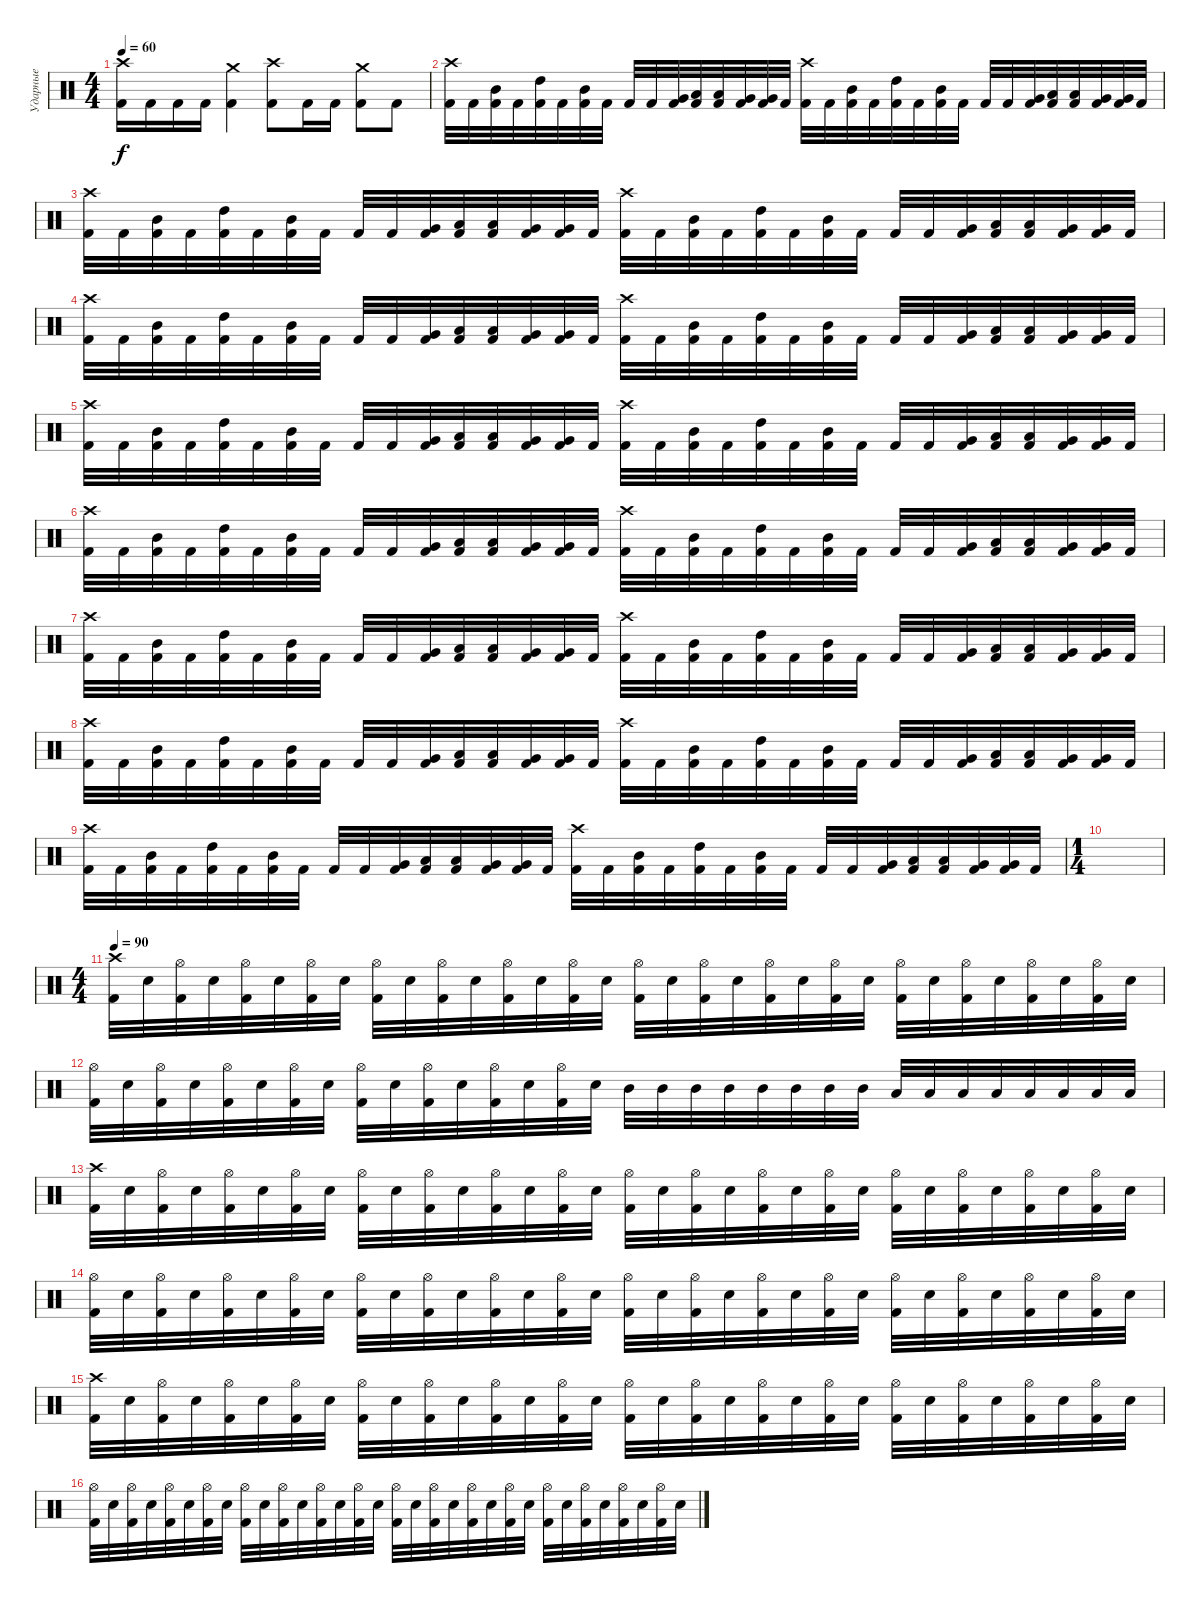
\track ("Ударные" "Ударные") {instrument percussion}
\staff {score}
\articulation defaults
\ts (4 4)
\tempo 60
\clef neutral
\ks c
("Crash high (hit)" "Kick (hit) 2").16{dy f} "Kick (hit) 2".16 "Kick (hit) 2".16 "Kick (hit) 2".16 ("Crash medium (hit)" "Kick (hit) 2").4 ("Crash high (hit)" "Kick (hit) 2").8 "Kick (hit) 2".16 "Kick (hit) 2".16 ("Crash medium (hit)" "Kick (hit) 2").8 "Kick (hit) 2".8 |
("Crash high (hit)" "Kick (hit) 2").32 "Kick (hit) 2".32 ("Mid Tom (hit)" "Kick (hit) 2").32 "Kick (hit) 2".32 ("High Tom (hit)" "Kick (hit) 2").32 "Kick (hit) 2".32 ("Mid Tom (hit)" "Kick (hit) 2").32 "Kick (hit) 2".32 "Kick (hit) 2".32 "Kick (hit) 2".32 ("Very Low Tom (hit)" "Kick (hit) 2").32 ("Low Tom (hit)" "Kick (hit) 2").32 ("Low Tom (hit)" "Kick (hit) 2").32 ("Very Low Tom (hit)" "Kick (hit) 2").32 ("Very Low Tom (hit)" "Kick (hit) 2").32 "Kick (hit) 2".32 ("Crash high (hit)" "Kick (hit) 2").32 "Kick (hit) 2".32 ("Mid Tom (hit)" "Kick (hit) 2").32 "Kick (hit) 2".32 ("High Tom (hit)" "Kick (hit) 2").32 "Kick (hit) 2".32 ("Mid Tom (hit)" "Kick (hit) 2").32 "Kick (hit) 2".32 "Kick (hit) 2".32 "Kick (hit) 2".32 ("Very Low Tom (hit)" "Kick (hit) 2").32 ("Low Tom (hit)" "Kick (hit) 2").32 ("Low Tom (hit)" "Kick (hit) 2").32 ("Very Low Tom (hit)" "Kick (hit) 2").32 ("Very Low Tom (hit)" "Kick (hit) 2").32 "Kick (hit) 2".32 |
("Crash high (hit)" "Kick (hit) 2").32 "Kick (hit) 2".32 ("Mid Tom (hit)" "Kick (hit) 2").32 "Kick (hit) 2".32 ("High Tom (hit)" "Kick (hit) 2").32 "Kick (hit) 2".32 ("Mid Tom (hit)" "Kick (hit) 2").32 "Kick (hit) 2".32 "Kick (hit) 2".32 "Kick (hit) 2".32 ("Very Low Tom (hit)" "Kick (hit) 2").32 ("Low Tom (hit)" "Kick (hit) 2").32 ("Low Tom (hit)" "Kick (hit) 2").32 ("Very Low Tom (hit)" "Kick (hit) 2").32 ("Very Low Tom (hit)" "Kick (hit) 2").32 "Kick (hit) 2".32 ("Crash high (hit)" "Kick (hit) 2").32 "Kick (hit) 2".32 ("Mid Tom (hit)" "Kick (hit) 2").32 "Kick (hit) 2".32 ("High Tom (hit)" "Kick (hit) 2").32 "Kick (hit) 2".32 ("Mid Tom (hit)" "Kick (hit) 2").32 "Kick (hit) 2".32 "Kick (hit) 2".32 "Kick (hit) 2".32 ("Very Low Tom (hit)" "Kick (hit) 2").32 ("Low Tom (hit)" "Kick (hit) 2").32 ("Low Tom (hit)" "Kick (hit) 2").32 ("Very Low Tom (hit)" "Kick (hit) 2").32 ("Very Low Tom (hit)" "Kick (hit) 2").32 "Kick (hit) 2".32 |
("Crash high (hit)" "Kick (hit) 2").32 "Kick (hit) 2".32 ("Mid Tom (hit)" "Kick (hit) 2").32 "Kick (hit) 2".32 ("High Tom (hit)" "Kick (hit) 2").32 "Kick (hit) 2".32 ("Mid Tom (hit)" "Kick (hit) 2").32 "Kick (hit) 2".32 "Kick (hit) 2".32 "Kick (hit) 2".32 ("Very Low Tom (hit)" "Kick (hit) 2").32 ("Low Tom (hit)" "Kick (hit) 2").32 ("Low Tom (hit)" "Kick (hit) 2").32 ("Very Low Tom (hit)" "Kick (hit) 2").32 ("Very Low Tom (hit)" "Kick (hit) 2").32 "Kick (hit) 2".32 ("Crash high (hit)" "Kick (hit) 2").32 "Kick (hit) 2".32 ("Mid Tom (hit)" "Kick (hit) 2").32 "Kick (hit) 2".32 ("High Tom (hit)" "Kick (hit) 2").32 "Kick (hit) 2".32 ("Mid Tom (hit)" "Kick (hit) 2").32 "Kick (hit) 2".32 "Kick (hit) 2".32 "Kick (hit) 2".32 ("Very Low Tom (hit)" "Kick (hit) 2").32 ("Low Tom (hit)" "Kick (hit) 2").32 ("Low Tom (hit)" "Kick (hit) 2").32 ("Very Low Tom (hit)" "Kick (hit) 2").32 ("Very Low Tom (hit)" "Kick (hit) 2").32 "Kick (hit) 2".32 |
("Crash high (hit)" "Kick (hit) 2").32 "Kick (hit) 2".32 ("Mid Tom (hit)" "Kick (hit) 2").32 "Kick (hit) 2".32 ("High Tom (hit)" "Kick (hit) 2").32 "Kick (hit) 2".32 ("Mid Tom (hit)" "Kick (hit) 2").32 "Kick (hit) 2".32 "Kick (hit) 2".32 "Kick (hit) 2".32 ("Very Low Tom (hit)" "Kick (hit) 2").32 ("Low Tom (hit)" "Kick (hit) 2").32 ("Low Tom (hit)" "Kick (hit) 2").32 ("Very Low Tom (hit)" "Kick (hit) 2").32 ("Very Low Tom (hit)" "Kick (hit) 2").32 "Kick (hit) 2".32 ("Crash high (hit)" "Kick (hit) 2").32 "Kick (hit) 2".32 ("Mid Tom (hit)" "Kick (hit) 2").32 "Kick (hit) 2".32 ("High Tom (hit)" "Kick (hit) 2").32 "Kick (hit) 2".32 ("Mid Tom (hit)" "Kick (hit) 2").32 "Kick (hit) 2".32 "Kick (hit) 2".32 "Kick (hit) 2".32 ("Very Low Tom (hit)" "Kick (hit) 2").32 ("Low Tom (hit)" "Kick (hit) 2").32 ("Low Tom (hit)" "Kick (hit) 2").32 ("Very Low Tom (hit)" "Kick (hit) 2").32 ("Very Low Tom (hit)" "Kick (hit) 2").32 "Kick (hit) 2".32 |
("Crash high (hit)" "Kick (hit) 2").32 "Kick (hit) 2".32 ("Mid Tom (hit)" "Kick (hit) 2").32 "Kick (hit) 2".32 ("High Tom (hit)" "Kick (hit) 2").32 "Kick (hit) 2".32 ("Mid Tom (hit)" "Kick (hit) 2").32 "Kick (hit) 2".32 "Kick (hit) 2".32 "Kick (hit) 2".32 ("Very Low Tom (hit)" "Kick (hit) 2").32 ("Low Tom (hit)" "Kick (hit) 2").32 ("Low Tom (hit)" "Kick (hit) 2").32 ("Very Low Tom (hit)" "Kick (hit) 2").32 ("Very Low Tom (hit)" "Kick (hit) 2").32 "Kick (hit) 2".32 ("Crash high (hit)" "Kick (hit) 2").32 "Kick (hit) 2".32 ("Mid Tom (hit)" "Kick (hit) 2").32 "Kick (hit) 2".32 ("High Tom (hit)" "Kick (hit) 2").32 "Kick (hit) 2".32 ("Mid Tom (hit)" "Kick (hit) 2").32 "Kick (hit) 2".32 "Kick (hit) 2".32 "Kick (hit) 2".32 ("Very Low Tom (hit)" "Kick (hit) 2").32 ("Low Tom (hit)" "Kick (hit) 2").32 ("Low Tom (hit)" "Kick (hit) 2").32 ("Very Low Tom (hit)" "Kick (hit) 2").32 ("Very Low Tom (hit)" "Kick (hit) 2").32 "Kick (hit) 2".32 |
("Crash high (hit)" "Kick (hit) 2").32 "Kick (hit) 2".32 ("Mid Tom (hit)" "Kick (hit) 2").32 "Kick (hit) 2".32 ("High Tom (hit)" "Kick (hit) 2").32 "Kick (hit) 2".32 ("Mid Tom (hit)" "Kick (hit) 2").32 "Kick (hit) 2".32 "Kick (hit) 2".32 "Kick (hit) 2".32 ("Very Low Tom (hit)" "Kick (hit) 2").32 ("Low Tom (hit)" "Kick (hit) 2").32 ("Low Tom (hit)" "Kick (hit) 2").32 ("Very Low Tom (hit)" "Kick (hit) 2").32 ("Very Low Tom (hit)" "Kick (hit) 2").32 "Kick (hit) 2".32 ("Crash high (hit)" "Kick (hit) 2").32 "Kick (hit) 2".32 ("Mid Tom (hit)" "Kick (hit) 2").32 "Kick (hit) 2".32 ("High Tom (hit)" "Kick (hit) 2").32 "Kick (hit) 2".32 ("Mid Tom (hit)" "Kick (hit) 2").32 "Kick (hit) 2".32 "Kick (hit) 2".32 "Kick (hit) 2".32 ("Very Low Tom (hit)" "Kick (hit) 2").32 ("Low Tom (hit)" "Kick (hit) 2").32 ("Low Tom (hit)" "Kick (hit) 2").32 ("Very Low Tom (hit)" "Kick (hit) 2").32 ("Very Low Tom (hit)" "Kick (hit) 2").32 "Kick (hit) 2".32 |
("Crash high (hit)" "Kick (hit) 2").32 "Kick (hit) 2".32 ("Mid Tom (hit)" "Kick (hit) 2").32 "Kick (hit) 2".32 ("High Tom (hit)" "Kick (hit) 2").32 "Kick (hit) 2".32 ("Mid Tom (hit)" "Kick (hit) 2").32 "Kick (hit) 2".32 "Kick (hit) 2".32 "Kick (hit) 2".32 ("Very Low Tom (hit)" "Kick (hit) 2").32 ("Low Tom (hit)" "Kick (hit) 2").32 ("Low Tom (hit)" "Kick (hit) 2").32 ("Very Low Tom (hit)" "Kick (hit) 2").32 ("Very Low Tom (hit)" "Kick (hit) 2").32 "Kick (hit) 2".32 ("Crash high (hit)" "Kick (hit) 2").32 "Kick (hit) 2".32 ("Mid Tom (hit)" "Kick (hit) 2").32 "Kick (hit) 2".32 ("High Tom (hit)" "Kick (hit) 2").32 "Kick (hit) 2".32 ("Mid Tom (hit)" "Kick (hit) 2").32 "Kick (hit) 2".32 "Kick (hit) 2".32 "Kick (hit) 2".32 ("Very Low Tom (hit)" "Kick (hit) 2").32 ("Low Tom (hit)" "Kick (hit) 2").32 ("Low Tom (hit)" "Kick (hit) 2").32 ("Very Low Tom (hit)" "Kick (hit) 2").32 ("Very Low Tom (hit)" "Kick (hit) 2").32 "Kick (hit) 2".32 |
("Crash high (hit)" "Kick (hit) 2").32 "Kick (hit) 2".32 ("Mid Tom (hit)" "Kick (hit) 2").32 "Kick (hit) 2".32 ("High Tom (hit)" "Kick (hit) 2").32 "Kick (hit) 2".32 ("Mid Tom (hit)" "Kick (hit) 2").32 "Kick (hit) 2".32 "Kick (hit) 2".32 "Kick (hit) 2".32 ("Very Low Tom (hit)" "Kick (hit) 2").32 ("Low Tom (hit)" "Kick (hit) 2").32 ("Low Tom (hit)" "Kick (hit) 2").32 ("Very Low Tom (hit)" "Kick (hit) 2").32 ("Very Low Tom (hit)" "Kick (hit) 2").32 "Kick (hit) 2".32 ("Crash high (hit)" "Kick (hit) 2").32 "Kick (hit) 2".32 ("Mid Tom (hit)" "Kick (hit) 2").32 "Kick (hit) 2".32 ("High Tom (hit)" "Kick (hit) 2").32 "Kick (hit) 2".32 ("Mid Tom (hit)" "Kick (hit) 2").32 "Kick (hit) 2".32 "Kick (hit) 2".32 "Kick (hit) 2".32 ("Very Low Tom (hit)" "Kick (hit) 2").32 ("Low Tom (hit)" "Kick (hit) 2").32 ("Low Tom (hit)" "Kick (hit) 2").32 ("Very Low Tom (hit)" "Kick (hit) 2").32 ("Very Low Tom (hit)" "Kick (hit) 2").32 "Kick (hit) 2".32 |
\ts (1 4)
|
\ts (4 4)
\tempo 90
("Crash high (hit)" "Kick (hit) 2").32 "Snare (hit) 2".32 ("Hi-Hat (open)" "Kick (hit) 2").32 "Snare (hit) 2".32 ("Hi-Hat (open)" "Kick (hit) 2").32 "Snare (hit) 2".32 ("Hi-Hat (open)" "Kick (hit) 2").32 "Snare (hit) 2".32 ("Hi-Hat (open)" "Kick (hit) 2").32 "Snare (hit) 2".32 ("Hi-Hat (open)" "Kick (hit) 2").32 "Snare (hit) 2".32 ("Hi-Hat (open)" "Kick (hit) 2").32 "Snare (hit) 2".32 ("Hi-Hat (open)" "Kick (hit) 2").32 "Snare (hit) 2".32 ("Hi-Hat (open)" "Kick (hit) 2").32 "Snare (hit) 2".32 ("Hi-Hat (open)" "Kick (hit) 2").32 "Snare (hit) 2".32 ("Hi-Hat (open)" "Kick (hit) 2").32 "Snare (hit) 2".32 ("Hi-Hat (open)" "Kick (hit) 2").32 "Snare (hit) 2".32 ("Hi-Hat (open)" "Kick (hit) 2").32 "Snare (hit) 2".32 ("Hi-Hat (open)" "Kick (hit) 2").32 "Snare (hit) 2".32 ("Hi-Hat (open)" "Kick (hit) 2").32 "Snare (hit) 2".32 ("Hi-Hat (open)" "Kick (hit) 2").32 "Snare (hit) 2".32 |
("Hi-Hat (open)" "Kick (hit) 2").32 "Snare (hit) 2".32 ("Hi-Hat (open)" "Kick (hit) 2").32 "Snare (hit) 2".32 ("Hi-Hat (open)" "Kick (hit) 2").32 "Snare (hit) 2".32 ("Hi-Hat (open)" "Kick (hit) 2").32 "Snare (hit) 2".32 ("Hi-Hat (open)" "Kick (hit) 2").32 "Snare (hit) 2".32 ("Hi-Hat (open)" "Kick (hit) 2").32 "Snare (hit) 2".32 ("Hi-Hat (open)" "Kick (hit) 2").32 "Snare (hit) 2".32 ("Hi-Hat (open)" "Kick (hit) 2").32 "Snare (hit) 2".32 "Mid Tom (hit)".32 "Mid Tom (hit)".32 "Mid Tom (hit)".32 "Mid Tom (hit)".32 "Mid Tom (hit)".32 "Mid Tom (hit)".32 "Mid Tom (hit)".32 "Mid Tom (hit)".32 "Low Tom (hit)".32 "Low Tom (hit)".32 "Low Tom (hit)".32 "Low Tom (hit)".32 "Low Tom (hit)".32 "Low Tom (hit)".32 "Low Tom (hit)".32 "Low Tom (hit)".32 |
("Crash high (hit)" "Kick (hit) 2").32 "Snare (hit) 2".32 ("Hi-Hat (open)" "Kick (hit) 2").32 "Snare (hit) 2".32 ("Hi-Hat (open)" "Kick (hit) 2").32 "Snare (hit) 2".32 ("Hi-Hat (open)" "Kick (hit) 2").32 "Snare (hit) 2".32 ("Hi-Hat (open)" "Kick (hit) 2").32 "Snare (hit) 2".32 ("Hi-Hat (open)" "Kick (hit) 2").32 "Snare (hit) 2".32 ("Hi-Hat (open)" "Kick (hit) 2").32 "Snare (hit) 2".32 ("Hi-Hat (open)" "Kick (hit) 2").32 "Snare (hit) 2".32 ("Hi-Hat (open)" "Kick (hit) 2").32 "Snare (hit) 2".32 ("Hi-Hat (open)" "Kick (hit) 2").32 "Snare (hit) 2".32 ("Hi-Hat (open)" "Kick (hit) 2").32 "Snare (hit) 2".32 ("Hi-Hat (open)" "Kick (hit) 2").32 "Snare (hit) 2".32 ("Hi-Hat (open)" "Kick (hit) 2").32 "Snare (hit) 2".32 ("Hi-Hat (open)" "Kick (hit) 2").32 "Snare (hit) 2".32 ("Hi-Hat (open)" "Kick (hit) 2").32 "Snare (hit) 2".32 ("Hi-Hat (open)" "Kick (hit) 2").32 "Snare (hit) 2".32 |
("Hi-Hat (open)" "Kick (hit) 2").32 "Snare (hit) 2".32 ("Hi-Hat (open)" "Kick (hit) 2").32 "Snare (hit) 2".32 ("Hi-Hat (open)" "Kick (hit) 2").32 "Snare (hit) 2".32 ("Hi-Hat (open)" "Kick (hit) 2").32 "Snare (hit) 2".32 ("Hi-Hat (open)" "Kick (hit) 2").32 "Snare (hit) 2".32 ("Hi-Hat (open)" "Kick (hit) 2").32 "Snare (hit) 2".32 ("Hi-Hat (open)" "Kick (hit) 2").32 "Snare (hit) 2".32 ("Hi-Hat (open)" "Kick (hit) 2").32 "Snare (hit) 2".32 ("Hi-Hat (open)" "Kick (hit) 2").32 "Snare (hit) 2".32 ("Hi-Hat (open)" "Kick (hit) 2").32 "Snare (hit) 2".32 ("Hi-Hat (open)" "Kick (hit) 2").32 "Snare (hit) 2".32 ("Hi-Hat (open)" "Kick (hit) 2").32 "Snare (hit) 2".32 ("Hi-Hat (open)" "Kick (hit) 2").32 "Snare (hit) 2".32 ("Hi-Hat (open)" "Kick (hit) 2").32 "Snare (hit) 2".32 ("Hi-Hat (open)" "Kick (hit) 2").32 "Snare (hit) 2".32 ("Hi-Hat (open)" "Kick (hit) 2").32 "Snare (hit) 2".32 |
("Crash high (hit)" "Kick (hit) 2").32 "Snare (hit) 2".32 ("Hi-Hat (open)" "Kick (hit) 2").32 "Snare (hit) 2".32 ("Hi-Hat (open)" "Kick (hit) 2").32 "Snare (hit) 2".32 ("Hi-Hat (open)" "Kick (hit) 2").32 "Snare (hit) 2".32 ("Hi-Hat (open)" "Kick (hit) 2").32 "Snare (hit) 2".32 ("Hi-Hat (open)" "Kick (hit) 2").32 "Snare (hit) 2".32 ("Hi-Hat (open)" "Kick (hit) 2").32 "Snare (hit) 2".32 ("Hi-Hat (open)" "Kick (hit) 2").32 "Snare (hit) 2".32 ("Hi-Hat (open)" "Kick (hit) 2").32 "Snare (hit) 2".32 ("Hi-Hat (open)" "Kick (hit) 2").32 "Snare (hit) 2".32 ("Hi-Hat (open)" "Kick (hit) 2").32 "Snare (hit) 2".32 ("Hi-Hat (open)" "Kick (hit) 2").32 "Snare (hit) 2".32 ("Hi-Hat (open)" "Kick (hit) 2").32 "Snare (hit) 2".32 ("Hi-Hat (open)" "Kick (hit) 2").32 "Snare (hit) 2".32 ("Hi-Hat (open)" "Kick (hit) 2").32 "Snare (hit) 2".32 ("Hi-Hat (open)" "Kick (hit) 2").32 "Snare (hit) 2".32 |
("Hi-Hat (open)" "Kick (hit) 2").32 "Snare (hit) 2".32 ("Hi-Hat (open)" "Kick (hit) 2").32 "Snare (hit) 2".32 ("Hi-Hat (open)" "Kick (hit) 2").32 "Snare (hit) 2".32 ("Hi-Hat (open)" "Kick (hit) 2").32 "Snare (hit) 2".32 ("Hi-Hat (open)" "Kick (hit) 2").32 "Snare (hit) 2".32 ("Hi-Hat (open)" "Kick (hit) 2").32 "Snare (hit) 2".32 ("Hi-Hat (open)" "Kick (hit) 2").32 "Snare (hit) 2".32 ("Hi-Hat (open)" "Kick (hit) 2").32 "Snare (hit) 2".32 ("Hi-Hat (open)" "Kick (hit) 2").32 "Snare (hit) 2".32 ("Hi-Hat (open)" "Kick (hit) 2").32 "Snare (hit) 2".32 ("Hi-Hat (open)" "Kick (hit) 2").32 "Snare (hit) 2".32 ("Hi-Hat (open)" "Kick (hit) 2").32 "Snare (hit) 2".32 ("Hi-Hat (open)" "Kick (hit) 2").32 "Snare (hit) 2".32 ("Hi-Hat (open)" "Kick (hit) 2").32 "Snare (hit) 2".32 ("Hi-Hat (open)" "Kick (hit) 2").32 "Snare (hit) 2".32 ("Hi-Hat (open)" "Kick (hit) 2").32 "Snare (hit) 2".32
